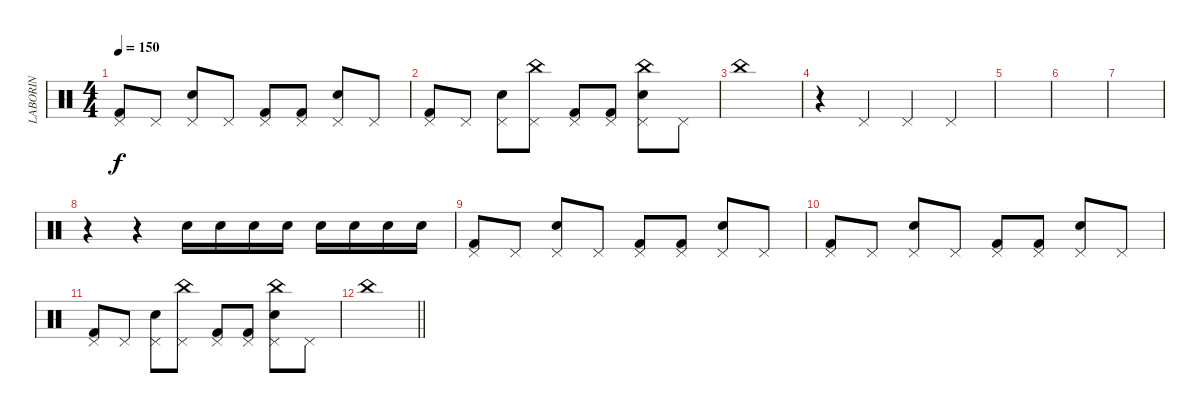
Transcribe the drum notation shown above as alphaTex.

\track ("LABORIN" "LABORIN") {instrument percussion}
\staff {score}
\articulation defaults
\ts (4 4)
\tempo 150
\clef neutral
\ks c
("Kick (hit) 2" "Pedal Hi-Hat (hit)").8{dy f} "Pedal Hi-Hat (hit)".8 ("Snare (hit) 2" "Pedal Hi-Hat (hit)").8 "Pedal Hi-Hat (hit)".8 ("Kick (hit) 2" "Pedal Hi-Hat (hit)").8 ("Kick (hit) 2" "Pedal Hi-Hat (hit)").8 ("Snare (hit) 2" "Pedal Hi-Hat (hit)").8 "Pedal Hi-Hat (hit)".8 |
("Kick (hit) 2" "Pedal Hi-Hat (hit)").8 "Pedal Hi-Hat (hit)".8 ("Snare (hit) 2" "Pedal Hi-Hat (hit)").8 ("China (hit)" "Pedal Hi-Hat (hit)").8 ("Kick (hit) 2" "Pedal Hi-Hat (hit)").8 ("Kick (hit) 2" "Pedal Hi-Hat (hit)").8 ("China (hit)" "Snare (hit) 2" "Pedal Hi-Hat (hit)").8 "Pedal Hi-Hat (hit)".8 |
"China (hit)".1 |
r.4 "Pedal Hi-Hat (hit)".4 "Pedal Hi-Hat (hit)".4 "Pedal Hi-Hat (hit)".4 |
|
|
|
r.4 r.4 "Snare (hit) 2".16 "Snare (hit) 2".16 "Snare (hit) 2".16 "Snare (hit) 2".16 "Snare (hit) 2".16 "Snare (hit) 2".16 "Snare (hit) 2".16 "Snare (hit) 2".16 |
("Kick (hit) 2" "Pedal Hi-Hat (hit)").8 "Pedal Hi-Hat (hit)".8 ("Snare (hit) 2" "Pedal Hi-Hat (hit)").8 "Pedal Hi-Hat (hit)".8 ("Kick (hit) 2" "Pedal Hi-Hat (hit)").8 ("Kick (hit) 2" "Pedal Hi-Hat (hit)").8 ("Snare (hit) 2" "Pedal Hi-Hat (hit)").8 "Pedal Hi-Hat (hit)".8 |
("Kick (hit) 2" "Pedal Hi-Hat (hit)").8 "Pedal Hi-Hat (hit)".8 ("Snare (hit) 2" "Pedal Hi-Hat (hit)").8 "Pedal Hi-Hat (hit)".8 ("Kick (hit) 2" "Pedal Hi-Hat (hit)").8 ("Kick (hit) 2" "Pedal Hi-Hat (hit)").8 ("Snare (hit) 2" "Pedal Hi-Hat (hit)").8 "Pedal Hi-Hat (hit)".8 |
("Kick (hit) 2" "Pedal Hi-Hat (hit)").8 "Pedal Hi-Hat (hit)".8 ("Snare (hit) 2" "Pedal Hi-Hat (hit)").8 ("China (hit)" "Pedal Hi-Hat (hit)").8 ("Kick (hit) 2" "Pedal Hi-Hat (hit)").8 ("Kick (hit) 2" "Pedal Hi-Hat (hit)").8 ("China (hit)" "Snare (hit) 2" "Pedal Hi-Hat (hit)").8 "Pedal Hi-Hat (hit)".8 |
\barLineRight lightlight "China (hit)".1
